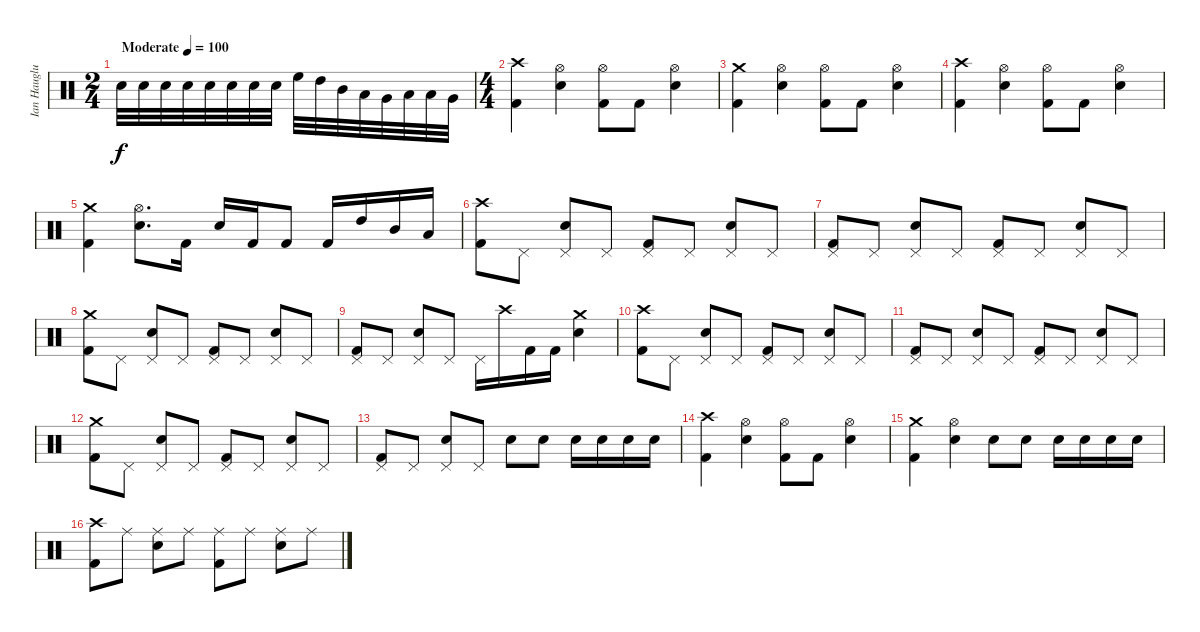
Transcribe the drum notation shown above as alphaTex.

\track ("Ian Hauglund" "Ian Hauglu") {instrument percussion}
\staff {score}
\articulation defaults
\ts (2 4)
\tempo (100 "Moderate")
\clef neutral
\ks c "Electric Snare (hit)".32{dy f} "Electric Snare (hit)".32 "Electric Snare (hit)".32 "Electric Snare (hit)".32 "Electric Snare (hit)".32 "Electric Snare (hit)".32 "Electric Snare (hit)".32 "Electric Snare (hit)".32 "High Floor Tom (hit)".32 "High Tom (hit)".32 "Mid Tom (hit)".32 "Low Tom (hit)".32 "Very Low Tom (hit)".32 "Low Floor Tom (hit)".32 "Low Tom (hit)".32 "Very Low Tom (hit)".32
|
\ts (4 4)
("Kick (hit) 2" "Crash high (hit)").4 ("Electric Snare (hit)" "Hi-Hat (open)").4 ("Kick (hit) 2" "Hi-Hat (open)").8 "Kick (hit) 2".8 ("Electric Snare (hit)" "Hi-Hat (open)").4 |
("Kick (hit) 2" "Crash medium (hit)").4 ("Electric Snare (hit)" "Hi-Hat (open)").4 ("Kick (hit) 2" "Hi-Hat (open)").8 "Kick (hit) 2".8 ("Electric Snare (hit)" "Hi-Hat (open)").4 |
("Kick (hit) 2" "Crash high (hit)").4 ("Electric Snare (hit)" "Hi-Hat (open)").4 ("Kick (hit) 2" "Hi-Hat (open)").8 "Kick (hit) 2".8 ("Electric Snare (hit)" "Hi-Hat (open)").4 |
("Kick (hit) 2" "Crash medium (hit)").4 ("Electric Snare (hit)" "Hi-Hat (open)").8{d} "Kick (hit) 2".16 "Electric Snare (hit)".16 "Kick (hit) 2".16 "Kick (hit) 2".8 "Kick (hit) 2".16 "High Tom (hit)".16 "Mid Tom (hit)".16 "Low Tom (hit)".16 |
("Kick (hit) 2" "Crash high (hit)").8 "Pedal Hi-Hat (hit)".8 ("Electric Snare (hit)" "Pedal Hi-Hat (hit)").8 "Pedal Hi-Hat (hit)".8 ("Kick (hit) 2" "Pedal Hi-Hat (hit)").8 "Pedal Hi-Hat (hit)".8 ("Electric Snare (hit)" "Pedal Hi-Hat (hit)").8 "Pedal Hi-Hat (hit)".8 |
("Kick (hit) 2" "Pedal Hi-Hat (hit)").8 "Pedal Hi-Hat (hit)".8 ("Electric Snare (hit)" "Pedal Hi-Hat (hit)").8 "Pedal Hi-Hat (hit)".8 ("Kick (hit) 2" "Pedal Hi-Hat (hit)").8 "Pedal Hi-Hat (hit)".8 ("Electric Snare (hit)" "Pedal Hi-Hat (hit)").8 "Pedal Hi-Hat (hit)".8 |
("Kick (hit) 2" "Crash medium (hit)").8 "Pedal Hi-Hat (hit)".8 ("Electric Snare (hit)" "Pedal Hi-Hat (hit)").8 "Pedal Hi-Hat (hit)".8 ("Kick (hit) 2" "Pedal Hi-Hat (hit)").8 "Pedal Hi-Hat (hit)".8 ("Electric Snare (hit)" "Pedal Hi-Hat (hit)").8 "Pedal Hi-Hat (hit)".8 |
("Kick (hit) 2" "Pedal Hi-Hat (hit)").8 "Pedal Hi-Hat (hit)".8 ("Electric Snare (hit)" "Pedal Hi-Hat (hit)").8 "Pedal Hi-Hat (hit)".8 "Pedal Hi-Hat (hit)".16 "Crash high (hit)".16 "Kick (hit) 2".16 "Kick (hit) 2".16 ("Electric Snare (hit)" "Crash medium (hit)").4 |
("Kick (hit) 2" "Crash high (hit)").8 "Pedal Hi-Hat (hit)".8 ("Electric Snare (hit)" "Pedal Hi-Hat (hit)").8 "Pedal Hi-Hat (hit)".8 ("Kick (hit) 2" "Pedal Hi-Hat (hit)").8 "Pedal Hi-Hat (hit)".8 ("Electric Snare (hit)" "Pedal Hi-Hat (hit)").8 "Pedal Hi-Hat (hit)".8 |
("Kick (hit) 2" "Pedal Hi-Hat (hit)").8 "Pedal Hi-Hat (hit)".8 ("Electric Snare (hit)" "Pedal Hi-Hat (hit)").8 "Pedal Hi-Hat (hit)".8 ("Kick (hit) 2" "Pedal Hi-Hat (hit)").8 "Pedal Hi-Hat (hit)".8 ("Electric Snare (hit)" "Pedal Hi-Hat (hit)").8 "Pedal Hi-Hat (hit)".8 |
("Kick (hit) 2" "Crash medium (hit)").8 "Pedal Hi-Hat (hit)".8 ("Electric Snare (hit)" "Pedal Hi-Hat (hit)").8 "Pedal Hi-Hat (hit)".8 ("Kick (hit) 2" "Pedal Hi-Hat (hit)").8 "Pedal Hi-Hat (hit)".8 ("Electric Snare (hit)" "Pedal Hi-Hat (hit)").8 "Pedal Hi-Hat (hit)".8 |
("Kick (hit) 2" "Pedal Hi-Hat (hit)").8 "Pedal Hi-Hat (hit)".8 ("Electric Snare (hit)" "Pedal Hi-Hat (hit)").8 "Pedal Hi-Hat (hit)".8 "Electric Snare (hit)".8 "Electric Snare (hit)".8 "Electric Snare (hit)".16 "Electric Snare (hit)".16 "Electric Snare (hit)".16 "Electric Snare (hit)".16 |
("Kick (hit) 2" "Crash high (hit)").4 ("Electric Snare (hit)" "Hi-Hat (open)").4 ("Kick (hit) 2" "Hi-Hat (open)").8 "Kick (hit) 2".8 ("Electric Snare (hit)" "Hi-Hat (open)").4 |
("Kick (hit) 2" "Crash medium (hit)").4 ("Electric Snare (hit)" "Hi-Hat (open)").4 "Electric Snare (hit)".8 "Electric Snare (hit)".8 "Electric Snare (hit)".16 "Electric Snare (hit)".16 "Electric Snare (hit)".16 "Electric Snare (hit)".16 |
("Kick (hit) 2" "Crash high (hit)").8 "Ride (middle)".8 ("Electric Snare (hit)" "Ride (middle)").8 "Ride (middle)".8 ("Kick (hit) 2" "Ride (middle)").8 "Ride (middle)".8 ("Electric Snare (hit)" "Ride (middle)").8 "Ride (middle)".8
